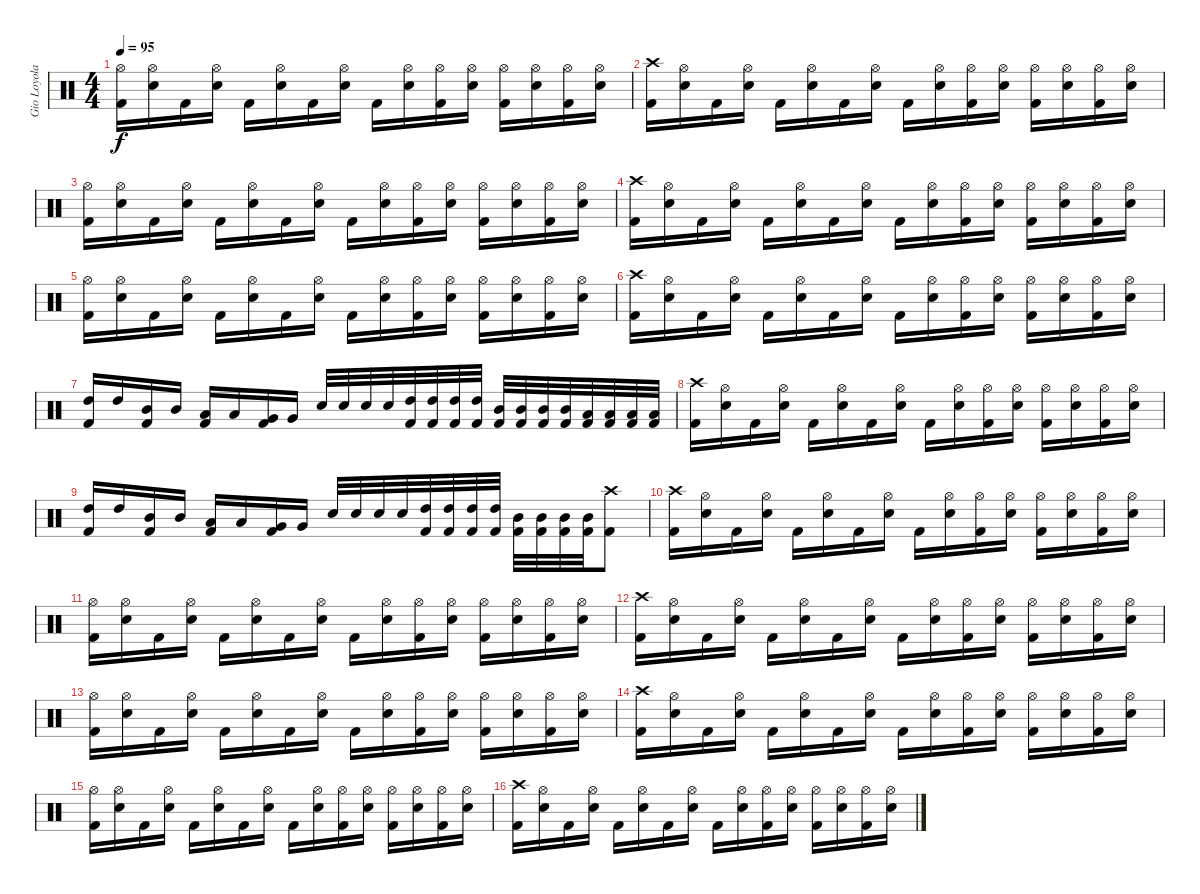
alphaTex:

\track ("Gio Loyola" "Gio Loyola") {instrument percussion}
\staff {score}
\articulation defaults
\ts (4 4)
\tempo 95
\clef neutral
\ks c
("Hi-Hat (open)" "Kick (hit) 2").16{dy f} ("Hi-Hat (open)" "Snare (hit) 2").16 "Kick (hit) 2".16 ("Hi-Hat (open)" "Snare (hit) 2").16 "Kick (hit) 2".16 ("Hi-Hat (open)" "Snare (hit) 2").16 "Kick (hit) 2".16 ("Hi-Hat (open)" "Snare (hit) 2").16 "Kick (hit) 2".16 ("Hi-Hat (open)" "Snare (hit) 2").16 ("Hi-Hat (open)" "Kick (hit) 2").16 ("Hi-Hat (open)" "Snare (hit) 2").16 ("Hi-Hat (open)" "Kick (hit) 2").16 ("Hi-Hat (open)" "Snare (hit) 2").16 ("Hi-Hat (open)" "Kick (hit) 2").16 ("Hi-Hat (open)" "Snare (hit) 2").16 |
("Crash high (hit)" "Kick (hit) 2").16 ("Hi-Hat (open)" "Snare (hit) 2").16 "Kick (hit) 2".16 ("Hi-Hat (open)" "Snare (hit) 2").16 "Kick (hit) 2".16 ("Hi-Hat (open)" "Snare (hit) 2").16 "Kick (hit) 2".16 ("Hi-Hat (open)" "Snare (hit) 2").16 "Kick (hit) 2".16 ("Hi-Hat (open)" "Snare (hit) 2").16 ("Hi-Hat (open)" "Kick (hit) 2").16 ("Hi-Hat (open)" "Snare (hit) 2").16 ("Hi-Hat (open)" "Kick (hit) 2").16 ("Hi-Hat (open)" "Snare (hit) 2").16 ("Hi-Hat (open)" "Kick (hit) 2").16 ("Hi-Hat (open)" "Snare (hit) 2").16 |
("Hi-Hat (open)" "Kick (hit) 2").16 ("Hi-Hat (open)" "Snare (hit) 2").16 "Kick (hit) 2".16 ("Hi-Hat (open)" "Snare (hit) 2").16 "Kick (hit) 2".16 ("Hi-Hat (open)" "Snare (hit) 2").16 "Kick (hit) 2".16 ("Hi-Hat (open)" "Snare (hit) 2").16 "Kick (hit) 2".16 ("Hi-Hat (open)" "Snare (hit) 2").16 ("Hi-Hat (open)" "Kick (hit) 2").16 ("Hi-Hat (open)" "Snare (hit) 2").16 ("Hi-Hat (open)" "Kick (hit) 2").16 ("Hi-Hat (open)" "Snare (hit) 2").16 ("Hi-Hat (open)" "Kick (hit) 2").16 ("Hi-Hat (open)" "Snare (hit) 2").16 |
("Crash high (hit)" "Kick (hit) 2").16 ("Hi-Hat (open)" "Snare (hit) 2").16 "Kick (hit) 2".16 ("Hi-Hat (open)" "Snare (hit) 2").16 "Kick (hit) 2".16 ("Hi-Hat (open)" "Snare (hit) 2").16 "Kick (hit) 2".16 ("Hi-Hat (open)" "Snare (hit) 2").16 "Kick (hit) 2".16 ("Hi-Hat (open)" "Snare (hit) 2").16 ("Hi-Hat (open)" "Kick (hit) 2").16 ("Hi-Hat (open)" "Snare (hit) 2").16 ("Hi-Hat (open)" "Kick (hit) 2").16 ("Hi-Hat (open)" "Snare (hit) 2").16 ("Hi-Hat (open)" "Kick (hit) 2").16 ("Hi-Hat (open)" "Snare (hit) 2").16 |
("Hi-Hat (open)" "Kick (hit) 2").16 ("Hi-Hat (open)" "Snare (hit) 2").16 "Kick (hit) 2".16 ("Hi-Hat (open)" "Snare (hit) 2").16 "Kick (hit) 2".16 ("Hi-Hat (open)" "Snare (hit) 2").16 "Kick (hit) 2".16 ("Hi-Hat (open)" "Snare (hit) 2").16 "Kick (hit) 2".16 ("Hi-Hat (open)" "Snare (hit) 2").16 ("Hi-Hat (open)" "Kick (hit) 2").16 ("Hi-Hat (open)" "Snare (hit) 2").16 ("Hi-Hat (open)" "Kick (hit) 2").16 ("Hi-Hat (open)" "Snare (hit) 2").16 ("Hi-Hat (open)" "Kick (hit) 2").16 ("Hi-Hat (open)" "Snare (hit) 2").16 |
("Crash high (hit)" "Kick (hit) 2").16 ("Hi-Hat (open)" "Snare (hit) 2").16 "Kick (hit) 2".16 ("Hi-Hat (open)" "Snare (hit) 2").16 "Kick (hit) 2".16 ("Hi-Hat (open)" "Snare (hit) 2").16 "Kick (hit) 2".16 ("Hi-Hat (open)" "Snare (hit) 2").16 "Kick (hit) 2".16 ("Hi-Hat (open)" "Snare (hit) 2").16 ("Hi-Hat (open)" "Kick (hit) 2").16 ("Hi-Hat (open)" "Snare (hit) 2").16 ("Hi-Hat (open)" "Kick (hit) 2").16 ("Hi-Hat (open)" "Snare (hit) 2").16 ("Hi-Hat (open)" "Kick (hit) 2").16 ("Hi-Hat (open)" "Snare (hit) 2").16 |
("High Tom (hit)" "Kick (hit) 2").16 "High Tom (hit)".16 ("Mid Tom (hit)" "Kick (hit) 2").16 "Mid Tom (hit)".16 ("Low Tom (hit)" "Kick (hit) 2").16 "Low Tom (hit)".16 ("Very Low Tom (hit)" "Kick (hit) 2").16 "Very Low Tom (hit)".16 "Snare (hit) 2".32 "Snare (hit) 2".32 "Snare (hit) 2".32 "Snare (hit) 2".32 ("High Tom (hit)" "Kick (hit) 2").32 ("High Tom (hit)" "Kick (hit) 2").32 ("High Tom (hit)" "Kick (hit) 2").32 ("High Tom (hit)" "Kick (hit) 2").32 ("Mid Tom (hit)" "Kick (hit) 2").32 ("Mid Tom (hit)" "Kick (hit) 2").32 ("Mid Tom (hit)" "Kick (hit) 2").32 ("Mid Tom (hit)" "Kick (hit) 2").32 ("Low Tom (hit)" "Kick (hit) 2").32 ("Low Tom (hit)" "Kick (hit) 2").32 ("Low Tom (hit)" "Kick (hit) 2").32 ("Low Tom (hit)" "Kick (hit) 2").32 |
("Crash high (hit)" "Kick (hit) 2").16 ("Hi-Hat (open)" "Snare (hit) 2").16 "Kick (hit) 2".16 ("Hi-Hat (open)" "Snare (hit) 2").16 "Kick (hit) 2".16 ("Hi-Hat (open)" "Snare (hit) 2").16 "Kick (hit) 2".16 ("Hi-Hat (open)" "Snare (hit) 2").16 "Kick (hit) 2".16 ("Hi-Hat (open)" "Snare (hit) 2").16 ("Hi-Hat (open)" "Kick (hit) 2").16 ("Hi-Hat (open)" "Snare (hit) 2").16 ("Hi-Hat (open)" "Kick (hit) 2").16 ("Hi-Hat (open)" "Snare (hit) 2").16 ("Hi-Hat (open)" "Kick (hit) 2").16 ("Hi-Hat (open)" "Snare (hit) 2").16 |
("High Tom (hit)" "Kick (hit) 2").16 "High Tom (hit)".16 ("Mid Tom (hit)" "Kick (hit) 2").16 "Mid Tom (hit)".16 ("Low Tom (hit)" "Kick (hit) 2").16 "Low Tom (hit)".16 ("Very Low Tom (hit)" "Kick (hit) 2").16 "Very Low Tom (hit)".16 "Snare (hit) 2".32 "Snare (hit) 2".32 "Snare (hit) 2".32 "Snare (hit) 2".32 ("High Tom (hit)" "Kick (hit) 2").32 ("High Tom (hit)" "Kick (hit) 2").32 ("High Tom (hit)" "Kick (hit) 2").32 ("High Tom (hit)" "Kick (hit) 2").32 ("Mid Tom (hit)" "Kick (hit) 2").32 ("Mid Tom (hit)" "Kick (hit) 2").32 ("Mid Tom (hit)" "Kick (hit) 2").32 ("Mid Tom (hit)" "Kick (hit) 2").32 ("Crash high (hit)" "Kick (hit) 2").8 |
("Crash high (hit)" "Kick (hit) 2").16 ("Hi-Hat (open)" "Snare (hit) 2").16 "Kick (hit) 2".16 ("Hi-Hat (open)" "Snare (hit) 2").16 "Kick (hit) 2".16 ("Hi-Hat (open)" "Snare (hit) 2").16 "Kick (hit) 2".16 ("Hi-Hat (open)" "Snare (hit) 2").16 "Kick (hit) 2".16 ("Hi-Hat (open)" "Snare (hit) 2").16 ("Hi-Hat (open)" "Kick (hit) 2").16 ("Hi-Hat (open)" "Snare (hit) 2").16 ("Hi-Hat (open)" "Kick (hit) 2").16 ("Hi-Hat (open)" "Snare (hit) 2").16 ("Hi-Hat (open)" "Kick (hit) 2").16 ("Hi-Hat (open)" "Snare (hit) 2").16 |
("Hi-Hat (open)" "Kick (hit) 2").16 ("Hi-Hat (open)" "Snare (hit) 2").16 "Kick (hit) 2".16 ("Hi-Hat (open)" "Snare (hit) 2").16 "Kick (hit) 2".16 ("Hi-Hat (open)" "Snare (hit) 2").16 "Kick (hit) 2".16 ("Hi-Hat (open)" "Snare (hit) 2").16 "Kick (hit) 2".16 ("Hi-Hat (open)" "Snare (hit) 2").16 ("Hi-Hat (open)" "Kick (hit) 2").16 ("Hi-Hat (open)" "Snare (hit) 2").16 ("Hi-Hat (open)" "Kick (hit) 2").16 ("Hi-Hat (open)" "Snare (hit) 2").16 ("Hi-Hat (open)" "Kick (hit) 2").16 ("Hi-Hat (open)" "Snare (hit) 2").16 |
("Crash high (hit)" "Kick (hit) 2").16 ("Hi-Hat (open)" "Snare (hit) 2").16 "Kick (hit) 2".16 ("Hi-Hat (open)" "Snare (hit) 2").16 "Kick (hit) 2".16 ("Hi-Hat (open)" "Snare (hit) 2").16 "Kick (hit) 2".16 ("Hi-Hat (open)" "Snare (hit) 2").16 "Kick (hit) 2".16 ("Hi-Hat (open)" "Snare (hit) 2").16 ("Hi-Hat (open)" "Kick (hit) 2").16 ("Hi-Hat (open)" "Snare (hit) 2").16 ("Hi-Hat (open)" "Kick (hit) 2").16 ("Hi-Hat (open)" "Snare (hit) 2").16 ("Hi-Hat (open)" "Kick (hit) 2").16 ("Hi-Hat (open)" "Snare (hit) 2").16 |
("Hi-Hat (open)" "Kick (hit) 2").16 ("Hi-Hat (open)" "Snare (hit) 2").16 "Kick (hit) 2".16 ("Hi-Hat (open)" "Snare (hit) 2").16 "Kick (hit) 2".16 ("Hi-Hat (open)" "Snare (hit) 2").16 "Kick (hit) 2".16 ("Hi-Hat (open)" "Snare (hit) 2").16 "Kick (hit) 2".16 ("Hi-Hat (open)" "Snare (hit) 2").16 ("Hi-Hat (open)" "Kick (hit) 2").16 ("Hi-Hat (open)" "Snare (hit) 2").16 ("Hi-Hat (open)" "Kick (hit) 2").16 ("Hi-Hat (open)" "Snare (hit) 2").16 ("Hi-Hat (open)" "Kick (hit) 2").16 ("Hi-Hat (open)" "Snare (hit) 2").16 |
("Crash high (hit)" "Kick (hit) 2").16 ("Hi-Hat (open)" "Snare (hit) 2").16 "Kick (hit) 2".16 ("Hi-Hat (open)" "Snare (hit) 2").16 "Kick (hit) 2".16 ("Hi-Hat (open)" "Snare (hit) 2").16 "Kick (hit) 2".16 ("Hi-Hat (open)" "Snare (hit) 2").16 "Kick (hit) 2".16 ("Hi-Hat (open)" "Snare (hit) 2").16 ("Hi-Hat (open)" "Kick (hit) 2").16 ("Hi-Hat (open)" "Snare (hit) 2").16 ("Hi-Hat (open)" "Kick (hit) 2").16 ("Hi-Hat (open)" "Snare (hit) 2").16 ("Hi-Hat (open)" "Kick (hit) 2").16 ("Hi-Hat (open)" "Snare (hit) 2").16 |
("Hi-Hat (open)" "Kick (hit) 2").16 ("Hi-Hat (open)" "Snare (hit) 2").16 "Kick (hit) 2".16 ("Hi-Hat (open)" "Snare (hit) 2").16 "Kick (hit) 2".16 ("Hi-Hat (open)" "Snare (hit) 2").16 "Kick (hit) 2".16 ("Hi-Hat (open)" "Snare (hit) 2").16 "Kick (hit) 2".16 ("Hi-Hat (open)" "Snare (hit) 2").16 ("Hi-Hat (open)" "Kick (hit) 2").16 ("Hi-Hat (open)" "Snare (hit) 2").16 ("Hi-Hat (open)" "Kick (hit) 2").16 ("Hi-Hat (open)" "Snare (hit) 2").16 ("Hi-Hat (open)" "Kick (hit) 2").16 ("Hi-Hat (open)" "Snare (hit) 2").16 |
("Crash high (hit)" "Kick (hit) 2").16 ("Hi-Hat (open)" "Snare (hit) 2").16 "Kick (hit) 2".16 ("Hi-Hat (open)" "Snare (hit) 2").16 "Kick (hit) 2".16 ("Hi-Hat (open)" "Snare (hit) 2").16 "Kick (hit) 2".16 ("Hi-Hat (open)" "Snare (hit) 2").16 "Kick (hit) 2".16 ("Hi-Hat (open)" "Snare (hit) 2").16 ("Hi-Hat (open)" "Kick (hit) 2").16 ("Hi-Hat (open)" "Snare (hit) 2").16 ("Hi-Hat (open)" "Kick (hit) 2").16 ("Hi-Hat (open)" "Snare (hit) 2").16 ("Hi-Hat (open)" "Kick (hit) 2").16 ("Hi-Hat (open)" "Snare (hit) 2").16
